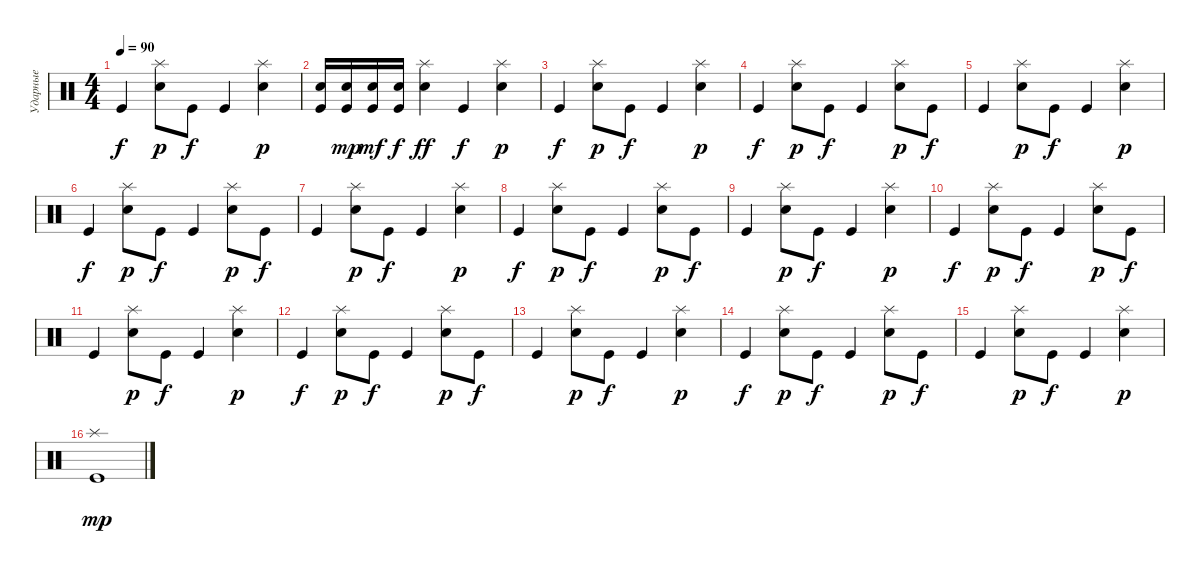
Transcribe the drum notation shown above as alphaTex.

\track ("Ударные" "Ударные") {instrument percussion}
\staff {score}
\articulation defaults
\ts (4 4)
\tempo 90
\clef neutral
\ks c "Kick (hit)".4{dy f}
("Splash (hit)" "Snare (hit) 2").8{dy p} "Kick (hit)".8{dy f} "Kick (hit)".4 ("Splash (hit)" "Snare (hit) 2").4{dy p} |
("Snare (hit) 2" "Kick (hit)").16 ("Snare (hit) 2" "Kick (hit)").16{dy mp} ("Snare (hit) 2" "Kick (hit)").16{dy mf} ("Snare (hit) 2" "Kick (hit)").16{dy f} ("Splash (hit)" "Snare (hit) 2").4{dy ff} "Kick (hit)".4{dy f} ("Splash (hit)" "Snare (hit) 2").4{dy p} |
"Kick (hit)".4{dy f} ("Splash (hit)" "Snare (hit) 2").8{dy p} "Kick (hit)".8{dy f} "Kick (hit)".4 ("Splash (hit)" "Snare (hit) 2").4{dy p} |
"Kick (hit)".4{dy f} ("Splash (hit)" "Snare (hit) 2").8{dy p} "Kick (hit)".8{dy f} "Kick (hit)".4 ("Splash (hit)" "Snare (hit) 2").8{dy p} "Kick (hit)".8{dy f} |
"Kick (hit)".4 ("Splash (hit)" "Snare (hit) 2").8{dy p} "Kick (hit)".8{dy f} "Kick (hit)".4 ("Splash (hit)" "Snare (hit) 2").4{dy p} |
"Kick (hit)".4{dy f} ("Splash (hit)" "Snare (hit) 2").8{dy p} "Kick (hit)".8{dy f} "Kick (hit)".4 ("Splash (hit)" "Snare (hit) 2").8{dy p} "Kick (hit)".8{dy f} |
"Kick (hit)".4 ("Splash (hit)" "Snare (hit) 2").8{dy p} "Kick (hit)".8{dy f} "Kick (hit)".4 ("Splash (hit)" "Snare (hit) 2").4{dy p} |
"Kick (hit)".4{dy f} ("Splash (hit)" "Snare (hit) 2").8{dy p} "Kick (hit)".8{dy f} "Kick (hit)".4 ("Splash (hit)" "Snare (hit) 2").8{dy p} "Kick (hit)".8{dy f} |
"Kick (hit)".4 ("Splash (hit)" "Snare (hit) 2").8{dy p} "Kick (hit)".8{dy f} "Kick (hit)".4 ("Splash (hit)" "Snare (hit) 2").4{dy p} |
"Kick (hit)".4{dy f} ("Splash (hit)" "Snare (hit) 2").8{dy p} "Kick (hit)".8{dy f} "Kick (hit)".4 ("Splash (hit)" "Snare (hit) 2").8{dy p} "Kick (hit)".8{dy f} |
"Kick (hit)".4 ("Splash (hit)" "Snare (hit) 2").8{dy p} "Kick (hit)".8{dy f} "Kick (hit)".4 ("Splash (hit)" "Snare (hit) 2").4{dy p} |
"Kick (hit)".4{dy f} ("Splash (hit)" "Snare (hit) 2").8{dy p} "Kick (hit)".8{dy f} "Kick (hit)".4 ("Splash (hit)" "Snare (hit) 2").8{dy p} "Kick (hit)".8{dy f} |
"Kick (hit)".4 ("Splash (hit)" "Snare (hit) 2").8{dy p} "Kick (hit)".8{dy f} "Kick (hit)".4 ("Splash (hit)" "Snare (hit) 2").4{dy p} |
"Kick (hit)".4{dy f} ("Splash (hit)" "Snare (hit) 2").8{dy p} "Kick (hit)".8{dy f} "Kick (hit)".4 ("Splash (hit)" "Snare (hit) 2").8{dy p} "Kick (hit)".8{dy f} |
"Kick (hit)".4 ("Splash (hit)" "Snare (hit) 2").8{dy p} "Kick (hit)".8{dy f} "Kick (hit)".4 ("Splash (hit)" "Snare (hit) 2").4{dy p} |
("Splash (hit)" "Kick (hit)").1{dy mp}
